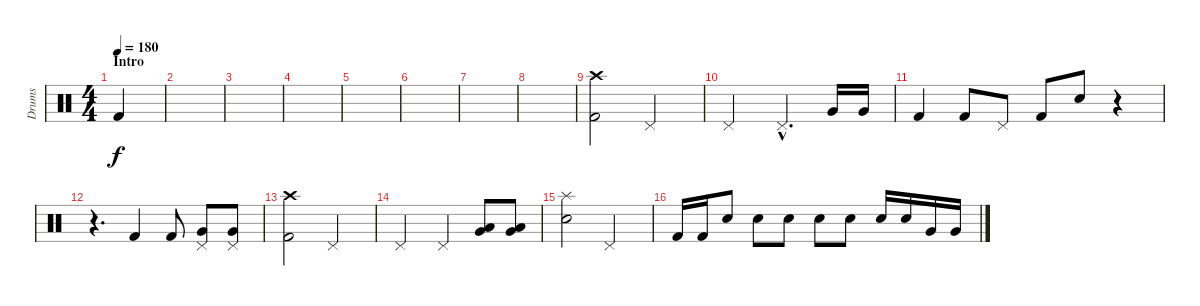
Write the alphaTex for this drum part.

\track ("Drums" "Drums") {instrument percussion}
\staff {score}
\articulation defaults
\ts (4 4)
\section ("" "Intro")
\tempo 180
\clef neutral
\ks c "Kick (hit) 2".4{dy f}
|
|
|
|
|
|
|
|
("Crash high (hit)" "Kick (hit) 2").2 "Pedal Hi-Hat (hit)".2 |
"Pedal Hi-Hat (hit)".2 "Pedal Hi-Hat (hit)"{hac}.4{d} "Very Low Tom (hit)".16 "Very Low Tom (hit)".16 |
"Kick (hit) 2".4 "Kick (hit) 2".8 "Pedal Hi-Hat (hit)".8 "Kick (hit) 2".8 "Electric Snare (hit)".8 r.4 |
r.4{d} "Kick (hit) 2".4 "Kick (hit) 2".8 ("Pedal Hi-Hat (hit)" "Very Low Tom (hit)").8 ("Pedal Hi-Hat (hit)" "Very Low Tom (hit)").8 |
("Crash high (hit)" "Kick (hit) 2").2 "Pedal Hi-Hat (hit)".2 |
"Pedal Hi-Hat (hit)".2 "Pedal Hi-Hat (hit)".4 ("Low Tom (hit)" "Very Low Tom (hit)").8 ("Low Tom (hit)" "Very Low Tom (hit)").8 |
("Splash (hit)" "Electric Snare (hit)").2 "Pedal Hi-Hat (hit)".2 |
"Kick (hit) 2".16 "Kick (hit) 2".16 "Electric Snare (hit)".8 "Electric Snare (hit)".8 "Electric Snare (hit)".8 "Electric Snare (hit)".8 "Electric Snare (hit)".8 "Snare (hit) 2".16 "Electric Snare (hit)".16 "Very Low Tom (hit)".16 "Very Low Tom (hit)".16
